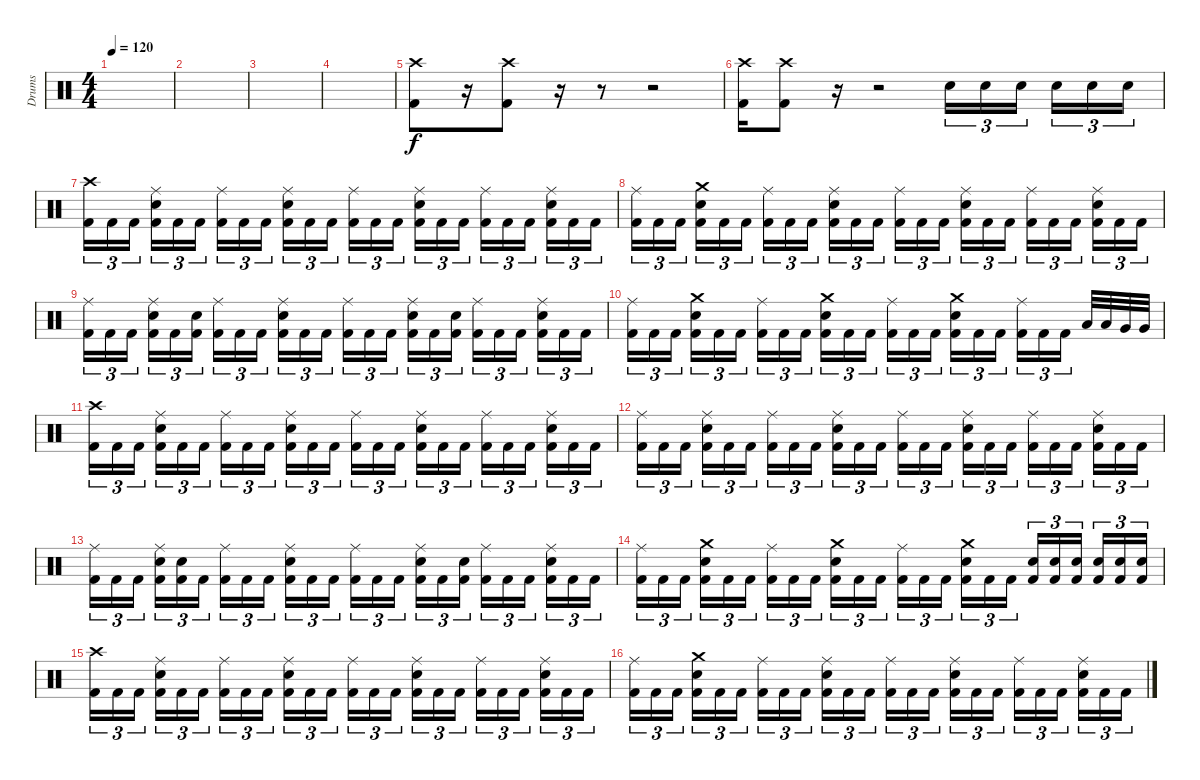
\track ("Drums" "Drums") {instrument percussion}
\staff
\articulation defaults
\ts (4 4)
\tempo 120
\clef neutral
\ks c
|
|
|
|
("Crash high (hit)" "Kick (hit) 2").8 r.16 ("Crash high (hit)" "Kick (hit) 2").8 r.16 r.8 r.2 |
("Crash high (hit)" "Kick (hit) 2").16 ("Crash high (hit)" "Kick (hit) 2").8 r.16 r.2 "Electric Snare (hit)".16{tu (3 2)} "Electric Snare (hit)".16{tu (3 2)} "Electric Snare (hit)".16{tu (3 2) beam splitsecondary} "Electric Snare (hit)".16{tu (3 2)} "Electric Snare (hit)".16{tu (3 2)} "Electric Snare (hit)".16{tu (3 2)} |
("Crash high (hit)" "Kick (hit) 2").16{tu (3 2)} "Kick (hit) 2".16{tu (3 2)} "Kick (hit) 2".16{tu (3 2) beam splitsecondary} ("Ride (middle)" "Electric Snare (hit)" "Kick (hit) 2").16{tu (3 2)} "Kick (hit) 2".16{tu (3 2)} "Kick (hit) 2".16{tu (3 2)} ("Ride (middle)" "Kick (hit) 2").16{tu (3 2)} "Kick (hit) 2".16{tu (3 2)} "Kick (hit) 2".16{tu (3 2) beam splitsecondary} ("Ride (middle)" "Electric Snare (hit)" "Kick (hit) 2").16{tu (3 2)} "Kick (hit) 2".16{tu (3 2)} "Kick (hit) 2".16{tu (3 2)} ("Ride (middle)" "Kick (hit) 2").16{tu (3 2)} "Kick (hit) 2".16{tu (3 2)} "Kick (hit) 2".16{tu (3 2) beam splitsecondary} ("Ride (middle)" "Electric Snare (hit)" "Kick (hit) 2").16{tu (3 2)} "Kick (hit) 2".16{tu (3 2)} "Kick (hit) 2".16{tu (3 2)} ("Ride (middle)" "Kick (hit) 2").16{tu (3 2)} "Kick (hit) 2".16{tu (3 2)} "Kick (hit) 2".16{tu (3 2) beam splitsecondary} ("Ride (middle)" "Electric Snare (hit)" "Kick (hit) 2").16{tu (3 2)} "Kick (hit) 2".16{tu (3 2)} "Kick (hit) 2".16{tu (3 2)} |
("Ride (middle)" "Kick (hit) 2").16{tu (3 2)} "Kick (hit) 2".16{tu (3 2)} "Kick (hit) 2".16{tu (3 2) beam splitsecondary} ("Crash medium (hit)" "Electric Snare (hit)" "Kick (hit) 2").16{tu (3 2)} "Kick (hit) 2".16{tu (3 2)} "Kick (hit) 2".16{tu (3 2)} ("Ride (middle)" "Kick (hit) 2").16{tu (3 2)} "Kick (hit) 2".16{tu (3 2)} "Kick (hit) 2".16{tu (3 2) beam splitsecondary} ("Ride (middle)" "Electric Snare (hit)" "Kick (hit) 2").16{tu (3 2)} "Kick (hit) 2".16{tu (3 2)} "Kick (hit) 2".16{tu (3 2)} ("Ride (middle)" "Kick (hit) 2").16{tu (3 2)} "Kick (hit) 2".16{tu (3 2)} "Kick (hit) 2".16{tu (3 2) beam splitsecondary} ("Ride (middle)" "Electric Snare (hit)" "Kick (hit) 2").16{tu (3 2)} "Kick (hit) 2".16{tu (3 2)} "Kick (hit) 2".16{tu (3 2)} ("Ride (middle)" "Kick (hit) 2").16{tu (3 2)} "Kick (hit) 2".16{tu (3 2)} "Kick (hit) 2".16{tu (3 2) beam splitsecondary} ("Ride (middle)" "Electric Snare (hit)" "Kick (hit) 2").16{tu (3 2)} "Kick (hit) 2".16{tu (3 2)} "Kick (hit) 2".16{tu (3 2)} |
("Ride (middle)" "Kick (hit) 2").16{tu (3 2)} "Kick (hit) 2".16{tu (3 2)} "Kick (hit) 2".16{tu (3 2) beam splitsecondary} ("Ride (middle)" "Electric Snare (hit)" "Kick (hit) 2").16{tu (3 2)} "Kick (hit) 2".16{tu (3 2)} ("Electric Snare (hit)" "Kick (hit) 2").16{tu (3 2)} ("Ride (middle)" "Kick (hit) 2").16{tu (3 2)} "Kick (hit) 2".16{tu (3 2)} "Kick (hit) 2".16{tu (3 2) beam splitsecondary} ("Ride (middle)" "Electric Snare (hit)" "Kick (hit) 2").16{tu (3 2)} "Kick (hit) 2".16{tu (3 2)} "Kick (hit) 2".16{tu (3 2)} ("Ride (middle)" "Kick (hit) 2").16{tu (3 2)} "Kick (hit) 2".16{tu (3 2)} "Kick (hit) 2".16{tu (3 2) beam splitsecondary} ("Ride (middle)" "Electric Snare (hit)" "Kick (hit) 2").16{tu (3 2)} "Kick (hit) 2".16{tu (3 2)} ("Electric Snare (hit)" "Kick (hit) 2").16{tu (3 2)} ("Ride (middle)" "Kick (hit) 2").16{tu (3 2)} "Kick (hit) 2".16{tu (3 2)} "Kick (hit) 2".16{tu (3 2) beam splitsecondary} ("Ride (middle)" "Electric Snare (hit)" "Kick (hit) 2").16{tu (3 2)} "Kick (hit) 2".16{tu (3 2)} "Kick (hit) 2".16{tu (3 2)} |
("Ride (middle)" "Kick (hit) 2").16{tu (3 2)} "Kick (hit) 2".16{tu (3 2)} "Kick (hit) 2".16{tu (3 2) beam splitsecondary} ("Crash medium (hit)" "Electric Snare (hit)" "Kick (hit) 2").16{tu (3 2)} "Kick (hit) 2".16{tu (3 2)} "Kick (hit) 2".16{tu (3 2)} ("Ride (middle)" "Kick (hit) 2").16{tu (3 2)} "Kick (hit) 2".16{tu (3 2)} "Kick (hit) 2".16{tu (3 2) beam splitsecondary} ("Crash medium (hit)" "Electric Snare (hit)" "Kick (hit) 2").16{tu (3 2)} "Kick (hit) 2".16{tu (3 2)} "Kick (hit) 2".16{tu (3 2)} ("Ride (middle)" "Kick (hit) 2").16{tu (3 2)} "Kick (hit) 2".16{tu (3 2)} "Kick (hit) 2".16{tu (3 2) beam splitsecondary} ("Crash medium (hit)" "Electric Snare (hit)" "Kick (hit) 2").16{tu (3 2)} "Kick (hit) 2".16{tu (3 2)} "Kick (hit) 2".16{tu (3 2)} ("Ride (middle)" "Kick (hit) 2").16{tu (3 2)} "Kick (hit) 2".16{tu (3 2)} "Kick (hit) 2".16{tu (3 2) beam splitsecondary} "Low Tom (hit)".32 "Low Tom (hit)".32 "Very Low Tom (hit)".32 "Very Low Tom (hit)".32 |
("Crash high (hit)" "Kick (hit) 2").16{tu (3 2)} "Kick (hit) 2".16{tu (3 2)} "Kick (hit) 2".16{tu (3 2) beam splitsecondary} ("Ride (middle)" "Electric Snare (hit)" "Kick (hit) 2").16{tu (3 2)} "Kick (hit) 2".16{tu (3 2)} "Kick (hit) 2".16{tu (3 2)} ("Ride (middle)" "Kick (hit) 2").16{tu (3 2)} "Kick (hit) 2".16{tu (3 2)} "Kick (hit) 2".16{tu (3 2) beam splitsecondary} ("Ride (middle)" "Electric Snare (hit)" "Kick (hit) 2").16{tu (3 2)} "Kick (hit) 2".16{tu (3 2)} "Kick (hit) 2".16{tu (3 2)} ("Ride (middle)" "Kick (hit) 2").16{tu (3 2)} "Kick (hit) 2".16{tu (3 2)} "Kick (hit) 2".16{tu (3 2) beam splitsecondary} ("Ride (middle)" "Electric Snare (hit)" "Kick (hit) 2").16{tu (3 2)} "Kick (hit) 2".16{tu (3 2)} "Kick (hit) 2".16{tu (3 2)} ("Ride (middle)" "Kick (hit) 2").16{tu (3 2)} "Kick (hit) 2".16{tu (3 2)} "Kick (hit) 2".16{tu (3 2) beam splitsecondary} ("Ride (middle)" "Electric Snare (hit)" "Kick (hit) 2").16{tu (3 2)} "Kick (hit) 2".16{tu (3 2)} "Kick (hit) 2".16{tu (3 2)} |
("Ride (middle)" "Kick (hit) 2").16{tu (3 2)} "Kick (hit) 2".16{tu (3 2)} "Kick (hit) 2".16{tu (3 2) beam splitsecondary} ("Ride (middle)" "Electric Snare (hit)" "Kick (hit) 2").16{tu (3 2)} "Kick (hit) 2".16{tu (3 2)} "Kick (hit) 2".16{tu (3 2)} ("Ride (middle)" "Kick (hit) 2").16{tu (3 2)} "Kick (hit) 2".16{tu (3 2)} "Kick (hit) 2".16{tu (3 2) beam splitsecondary} ("Ride (middle)" "Electric Snare (hit)" "Kick (hit) 2").16{tu (3 2)} "Kick (hit) 2".16{tu (3 2)} "Kick (hit) 2".16{tu (3 2)} ("Ride (middle)" "Kick (hit) 2").16{tu (3 2)} "Kick (hit) 2".16{tu (3 2)} "Kick (hit) 2".16{tu (3 2) beam splitsecondary} ("Ride (middle)" "Electric Snare (hit)" "Kick (hit) 2").16{tu (3 2)} "Kick (hit) 2".16{tu (3 2)} "Kick (hit) 2".16{tu (3 2)} ("Ride (middle)" "Kick (hit) 2").16{tu (3 2)} "Kick (hit) 2".16{tu (3 2)} "Kick (hit) 2".16{tu (3 2) beam splitsecondary} ("Ride (middle)" "Electric Snare (hit)" "Kick (hit) 2").16{tu (3 2)} "Kick (hit) 2".16{tu (3 2)} "Kick (hit) 2".16{tu (3 2)} |
("Ride (middle)" "Kick (hit) 2").16{tu (3 2)} "Kick (hit) 2".16{tu (3 2)} "Kick (hit) 2".16{tu (3 2) beam splitsecondary} ("Ride (middle)" "Electric Snare (hit)" "Kick (hit) 2").16{tu (3 2)} ("Electric Snare (hit)" "Kick (hit) 2").16{tu (3 2)} "Kick (hit) 2".16{tu (3 2)} ("Ride (middle)" "Kick (hit) 2").16{tu (3 2)} "Kick (hit) 2".16{tu (3 2)} "Kick (hit) 2".16{tu (3 2) beam splitsecondary} ("Ride (middle)" "Electric Snare (hit)" "Kick (hit) 2").16{tu (3 2)} "Kick (hit) 2".16{tu (3 2)} "Kick (hit) 2".16{tu (3 2)} ("Ride (middle)" "Kick (hit) 2").16{tu (3 2)} "Kick (hit) 2".16{tu (3 2)} "Kick (hit) 2".16{tu (3 2) beam splitsecondary} ("Ride (middle)" "Electric Snare (hit)" "Kick (hit) 2").16{tu (3 2)} "Kick (hit) 2".16{tu (3 2)} ("Electric Snare (hit)" "Kick (hit) 2").16{tu (3 2)} ("Ride (middle)" "Kick (hit) 2").16{tu (3 2)} "Kick (hit) 2".16{tu (3 2)} "Kick (hit) 2".16{tu (3 2) beam splitsecondary} ("Ride (middle)" "Electric Snare (hit)" "Kick (hit) 2").16{tu (3 2)} "Kick (hit) 2".16{tu (3 2)} "Kick (hit) 2".16{tu (3 2)} |
("Ride (middle)" "Kick (hit) 2").16{tu (3 2)} "Kick (hit) 2".16{tu (3 2)} "Kick (hit) 2".16{tu (3 2) beam splitsecondary} ("Crash medium (hit)" "Electric Snare (hit)" "Kick (hit) 2").16{tu (3 2)} "Kick (hit) 2".16{tu (3 2)} "Kick (hit) 2".16{tu (3 2)} ("Ride (middle)" "Kick (hit) 2").16{tu (3 2)} "Kick (hit) 2".16{tu (3 2)} "Kick (hit) 2".16{tu (3 2) beam splitsecondary} ("Crash medium (hit)" "Electric Snare (hit)" "Kick (hit) 2").16{tu (3 2)} "Kick (hit) 2".16{tu (3 2)} "Kick (hit) 2".16{tu (3 2)} ("Ride (middle)" "Kick (hit) 2").16{tu (3 2)} "Kick (hit) 2".16{tu (3 2)} "Kick (hit) 2".16{tu (3 2) beam splitsecondary} ("Crash medium (hit)" "Electric Snare (hit)" "Kick (hit) 2").16{tu (3 2)} "Kick (hit) 2".16{tu (3 2)} "Kick (hit) 2".16{tu (3 2)} ("Electric Snare (hit)" "Kick (hit) 2").16{tu (3 2)} ("Electric Snare (hit)" "Kick (hit) 2").16{tu (3 2)} ("Electric Snare (hit)" "Kick (hit) 2").16{tu (3 2) beam splitsecondary} ("Electric Snare (hit)" "Kick (hit) 2").16{tu (3 2)} ("Electric Snare (hit)" "Kick (hit) 2").16{tu (3 2)} ("Electric Snare (hit)" "Kick (hit) 2").16{tu (3 2)} |
("Crash high (hit)" "Kick (hit) 2").16{tu (3 2)} "Kick (hit) 2".16{tu (3 2)} "Kick (hit) 2".16{tu (3 2) beam splitsecondary} ("Ride (middle)" "Electric Snare (hit)" "Kick (hit) 2").16{tu (3 2)} "Kick (hit) 2".16{tu (3 2)} "Kick (hit) 2".16{tu (3 2)} ("Ride (middle)" "Kick (hit) 2").16{tu (3 2)} "Kick (hit) 2".16{tu (3 2)} "Kick (hit) 2".16{tu (3 2) beam splitsecondary} ("Ride (middle)" "Electric Snare (hit)" "Kick (hit) 2").16{tu (3 2)} "Kick (hit) 2".16{tu (3 2)} "Kick (hit) 2".16{tu (3 2)} ("Ride (middle)" "Kick (hit) 2").16{tu (3 2)} "Kick (hit) 2".16{tu (3 2)} "Kick (hit) 2".16{tu (3 2) beam splitsecondary} ("Ride (middle)" "Electric Snare (hit)" "Kick (hit) 2").16{tu (3 2)} "Kick (hit) 2".16{tu (3 2)} "Kick (hit) 2".16{tu (3 2)} ("Ride (middle)" "Kick (hit) 2").16{tu (3 2)} "Kick (hit) 2".16{tu (3 2)} "Kick (hit) 2".16{tu (3 2) beam splitsecondary} ("Ride (middle)" "Electric Snare (hit)" "Kick (hit) 2").16{tu (3 2)} "Kick (hit) 2".16{tu (3 2)} "Kick (hit) 2".16{tu (3 2)} |
("Ride (middle)" "Kick (hit) 2").16{tu (3 2)} "Kick (hit) 2".16{tu (3 2)} "Kick (hit) 2".16{tu (3 2) beam splitsecondary} ("Crash medium (hit)" "Electric Snare (hit)" "Kick (hit) 2").16{tu (3 2)} "Kick (hit) 2".16{tu (3 2)} "Kick (hit) 2".16{tu (3 2)} ("Ride (middle)" "Kick (hit) 2").16{tu (3 2)} "Kick (hit) 2".16{tu (3 2)} "Kick (hit) 2".16{tu (3 2) beam splitsecondary} ("Ride (middle)" "Electric Snare (hit)" "Kick (hit) 2").16{tu (3 2)} "Kick (hit) 2".16{tu (3 2)} "Kick (hit) 2".16{tu (3 2)} ("Ride (middle)" "Kick (hit) 2").16{tu (3 2)} "Kick (hit) 2".16{tu (3 2)} "Kick (hit) 2".16{tu (3 2) beam splitsecondary} ("Ride (middle)" "Electric Snare (hit)" "Kick (hit) 2").16{tu (3 2)} "Kick (hit) 2".16{tu (3 2)} "Kick (hit) 2".16{tu (3 2)} ("Ride (middle)" "Kick (hit) 2").16{tu (3 2)} "Kick (hit) 2".16{tu (3 2)} "Kick (hit) 2".16{tu (3 2) beam splitsecondary} ("Ride (middle)" "Electric Snare (hit)" "Kick (hit) 2").16{tu (3 2)} "Kick (hit) 2".16{tu (3 2)} "Kick (hit) 2".16{tu (3 2)}
